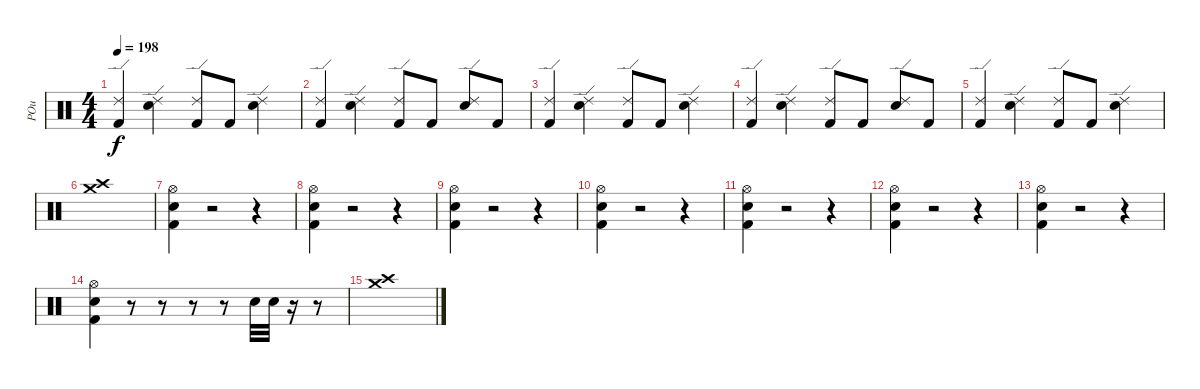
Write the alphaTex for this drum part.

\track ("POu" "POu") {instrument percussion}
\staff {score}
\articulation defaults
\ts (4 4)
\tempo 198
\clef neutral
\ks c
("Kick (hit) 2" "Ride (edge) 2").4{dy f} ("Electric Snare (hit)" "Ride (edge) 2").4 ("Kick (hit) 2" "Ride (edge) 2").8 "Kick (hit) 2".8 ("Electric Snare (hit)" "Ride (edge) 2").4 |
("Kick (hit) 2" "Ride (edge) 2").4 ("Electric Snare (hit)" "Ride (edge) 2").4 ("Kick (hit) 2" "Ride (edge) 2").8 "Kick (hit) 2".8 ("Electric Snare (hit)" "Ride (edge) 2").8 "Kick (hit) 2".8 |
("Kick (hit) 2" "Ride (edge) 2").4 ("Electric Snare (hit)" "Ride (edge) 2").4 ("Kick (hit) 2" "Ride (edge) 2").8 "Kick (hit) 2".8 ("Electric Snare (hit)" "Ride (edge) 2").4 |
("Kick (hit) 2" "Ride (edge) 2").4 ("Electric Snare (hit)" "Ride (edge) 2").4 ("Kick (hit) 2" "Ride (edge) 2").8 "Kick (hit) 2".8 ("Electric Snare (hit)" "Ride (edge) 2").8 "Kick (hit) 2".8 |
("Kick (hit) 2" "Ride (edge) 2").4 ("Electric Snare (hit)" "Ride (edge) 2").4 ("Kick (hit) 2" "Ride (edge) 2").8 "Kick (hit) 2".8 ("Electric Snare (hit)" "Ride (edge) 2").4 |
("Crash medium (hit)" "Crash high (hit)").1 |
("Electric Snare (hit)" "Hi-Hat (open)" "Kick (hit) 2").4 r.2 r.4 |
("Electric Snare (hit)" "Hi-Hat (open)" "Kick (hit) 2").4 r.2 r.4 |
("Electric Snare (hit)" "Hi-Hat (open)" "Kick (hit) 2").4 r.2 r.4 |
("Electric Snare (hit)" "Hi-Hat (open)" "Kick (hit) 2").4 r.2 r.4 |
("Electric Snare (hit)" "Hi-Hat (open)" "Kick (hit) 2").4 r.2 r.4 |
("Electric Snare (hit)" "Hi-Hat (open)" "Kick (hit) 2").4 r.2 r.4 |
("Electric Snare (hit)" "Hi-Hat (open)" "Kick (hit) 2").4 r.2 r.4 |
("Electric Snare (hit)" "Hi-Hat (open)" "Kick (hit) 2").4 r.8 r.8 r.8 r.8 "Electric Snare (hit)".32 "Electric Snare (hit)".32 r.16 r.8 |
("Crash high (hit)" "Crash medium (hit)").1
